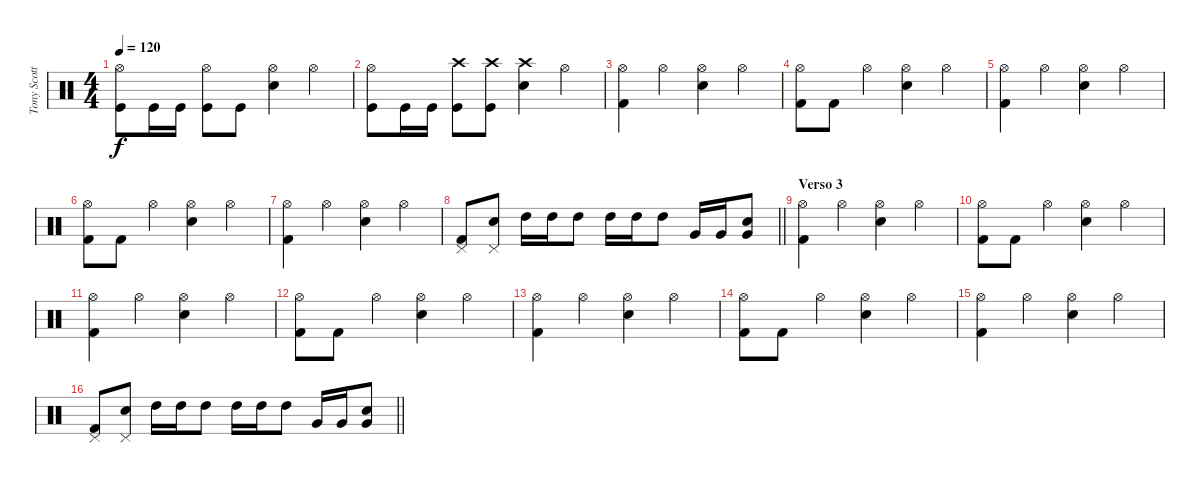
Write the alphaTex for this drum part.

\track ("Tony Scotto" "Tony Scott") {instrument percussion}
\staff {score}
\articulation defaults
\ts (4 4)
\tempo 120
\clef neutral
\ks c
("Hi-Hat (open)" "Kick (hit)").8{dy f} "Kick (hit)".16 "Kick (hit)".16 ("Hi-Hat (open)" "Kick (hit)").8 "Kick (hit)".8 ("Hi-Hat (open)" "Snare (hit) 2").4 "Hi-Hat (open)".4 |
("Hi-Hat (open)" "Kick (hit)").8 "Kick (hit)".16 "Kick (hit)".16 ("Crash high (hit)" "Kick (hit)").8 ("Crash high (hit)" "Kick (hit)").8 ("Crash high (hit)" "Snare (hit) 2").4 "Hi-Hat (open)".4 |
("Hi-Hat (open)" "Kick (hit) 2").4 "Hi-Hat (open)".4 ("Hi-Hat (open)" "Snare (hit) 2").4 "Hi-Hat (open)".4 |
("Hi-Hat (open)" "Kick (hit) 2").8 "Kick (hit) 2".8 "Hi-Hat (open)".4 ("Hi-Hat (open)" "Snare (hit) 2").4 "Hi-Hat (open)".4 |
("Hi-Hat (open)" "Kick (hit) 2").4 "Hi-Hat (open)".4 ("Hi-Hat (open)" "Snare (hit) 2").4 "Hi-Hat (open)".4 |
("Hi-Hat (open)" "Kick (hit) 2").8 "Kick (hit) 2".8 "Hi-Hat (open)".4 ("Hi-Hat (open)" "Snare (hit) 2").4 "Hi-Hat (open)".4 |
("Hi-Hat (open)" "Kick (hit) 2").4 "Hi-Hat (open)".4 ("Hi-Hat (open)" "Snare (hit) 2").4 "Hi-Hat (open)".4 |
\barLineRight lightlight
("Pedal Hi-Hat (hit)" "Kick (hit) 2").8 ("Pedal Hi-Hat (hit)" "Snare (hit) 2").8 "High Tom (hit)".16 "High Tom (hit)".16 "High Tom (hit)".8 "High Tom (hit)".16 "High Tom (hit)".16 "High Tom (hit)".8 "Very Low Tom (hit)".16 "Very Low Tom (hit)".16 ("Very Low Tom (hit)" "Snare (hit) 2").8 |
\section ("" "Verso 3")
("Hi-Hat (open)" "Kick (hit) 2").4 "Hi-Hat (open)".4 ("Hi-Hat (open)" "Snare (hit) 2").4 "Hi-Hat (open)".4 |
("Hi-Hat (open)" "Kick (hit) 2").8 "Kick (hit) 2".8 "Hi-Hat (open)".4 ("Hi-Hat (open)" "Snare (hit) 2").4 "Hi-Hat (open)".4 |
("Hi-Hat (open)" "Kick (hit) 2").4 "Hi-Hat (open)".4 ("Hi-Hat (open)" "Snare (hit) 2").4 "Hi-Hat (open)".4 |
("Hi-Hat (open)" "Kick (hit) 2").8 "Kick (hit) 2".8 "Hi-Hat (open)".4 ("Hi-Hat (open)" "Snare (hit) 2").4 "Hi-Hat (open)".4 |
("Hi-Hat (open)" "Kick (hit) 2").4 "Hi-Hat (open)".4 ("Hi-Hat (open)" "Snare (hit) 2").4 "Hi-Hat (open)".4 |
("Hi-Hat (open)" "Kick (hit) 2").8 "Kick (hit) 2".8 "Hi-Hat (open)".4 ("Hi-Hat (open)" "Snare (hit) 2").4 "Hi-Hat (open)".4 |
("Hi-Hat (open)" "Kick (hit) 2").4 "Hi-Hat (open)".4 ("Hi-Hat (open)" "Snare (hit) 2").4 "Hi-Hat (open)".4 |
\barLineRight lightlight
("Pedal Hi-Hat (hit)" "Kick (hit) 2").8 ("Pedal Hi-Hat (hit)" "Snare (hit) 2").8 "High Tom (hit)".16 "High Tom (hit)".16 "High Tom (hit)".8 "High Tom (hit)".16 "High Tom (hit)".16 "High Tom (hit)".8 "Very Low Tom (hit)".16 "Very Low Tom (hit)".16 ("Very Low Tom (hit)" "Snare (hit) 2").8
